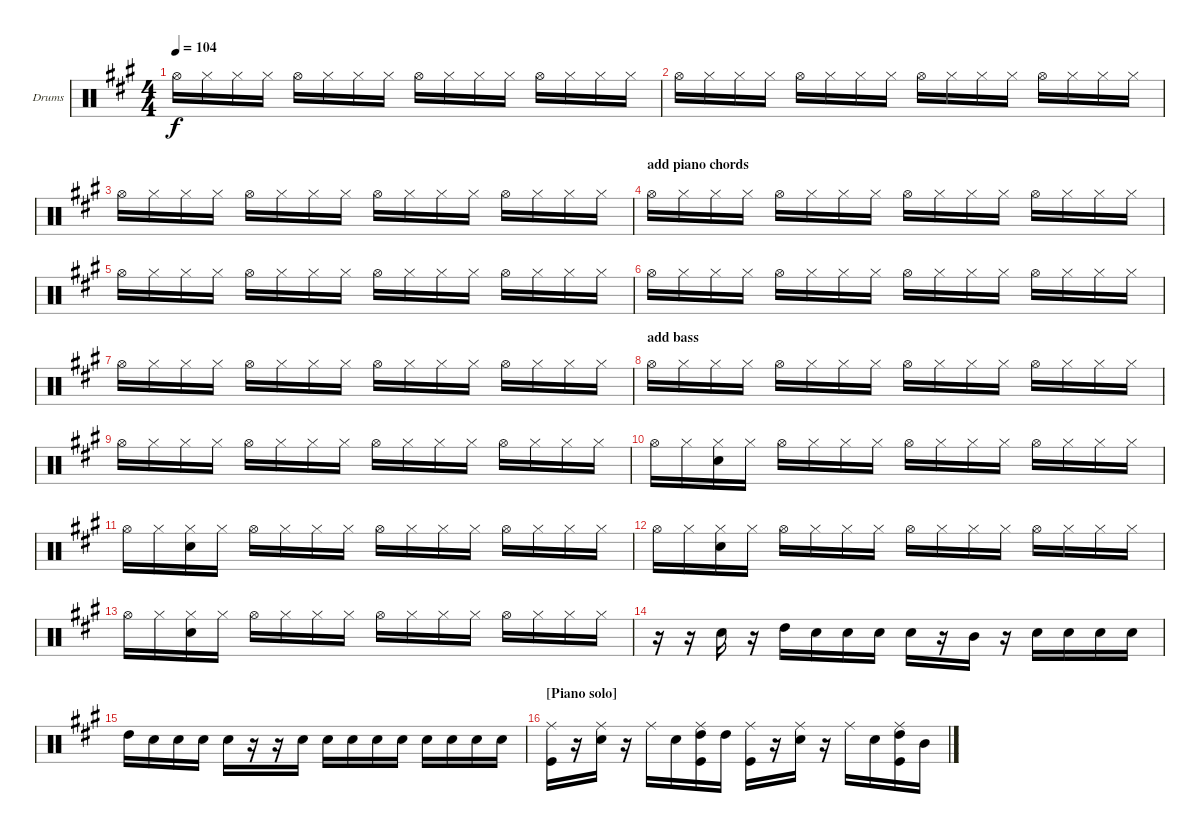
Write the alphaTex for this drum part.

\bracketExtendMode groupsimilarinstruments
\firstSystemTrackNameOrientation horizontal
\otherSystemsTrackNameOrientation horizontal
\track ("Drumkit" "Drums") {instrument percussion}
\staff {score}
\articulation defaults
\ts (4 4)
\tempo 104
\clef neutral
\ks a "Hi-Hat (open)".16{dy f} "Hi-Hat (closed)".16 "Hi-Hat (closed)".16 "Hi-Hat (closed)".16 "Hi-Hat (open)".16 "Hi-Hat (closed)".16 "Hi-Hat (closed)".16 "Hi-Hat (closed)".16 "Hi-Hat (open)".16 "Hi-Hat (closed)".16 "Hi-Hat (closed)".16 "Hi-Hat (closed)".16 "Hi-Hat (open)".16 "Hi-Hat (closed)".16 "Hi-Hat (closed)".16 "Hi-Hat (closed)".16
|
"Hi-Hat (open)".16 "Hi-Hat (closed)".16 "Hi-Hat (closed)".16 "Hi-Hat (closed)".16 "Hi-Hat (open)".16 "Hi-Hat (closed)".16 "Hi-Hat (closed)".16 "Hi-Hat (closed)".16 "Hi-Hat (open)".16 "Hi-Hat (closed)".16 "Hi-Hat (closed)".16 "Hi-Hat (closed)".16 "Hi-Hat (open)".16 "Hi-Hat (closed)".16 "Hi-Hat (closed)".16 "Hi-Hat (closed)".16 |
"Hi-Hat (open)".16 "Hi-Hat (closed)".16 "Hi-Hat (closed)".16 "Hi-Hat (closed)".16 "Hi-Hat (open)".16 "Hi-Hat (closed)".16 "Hi-Hat (closed)".16 "Hi-Hat (closed)".16 "Hi-Hat (open)".16 "Hi-Hat (closed)".16 "Hi-Hat (closed)".16 "Hi-Hat (closed)".16 "Hi-Hat (open)".16 "Hi-Hat (closed)".16 "Hi-Hat (closed)".16 "Hi-Hat (closed)".16 |
\section ("" "add piano chords")
"Hi-Hat (open)".16 "Hi-Hat (closed)".16 "Hi-Hat (closed)".16 "Hi-Hat (closed)".16 "Hi-Hat (open)".16 "Hi-Hat (closed)".16 "Hi-Hat (closed)".16 "Hi-Hat (closed)".16 "Hi-Hat (open)".16 "Hi-Hat (closed)".16 "Hi-Hat (closed)".16 "Hi-Hat (closed)".16 "Hi-Hat (open)".16 "Hi-Hat (closed)".16 "Hi-Hat (closed)".16 "Hi-Hat (closed)".16 |
"Hi-Hat (open)".16 "Hi-Hat (closed)".16 "Hi-Hat (closed)".16 "Hi-Hat (closed)".16 "Hi-Hat (open)".16 "Hi-Hat (closed)".16 "Hi-Hat (closed)".16 "Hi-Hat (closed)".16 "Hi-Hat (open)".16 "Hi-Hat (closed)".16 "Hi-Hat (closed)".16 "Hi-Hat (closed)".16 "Hi-Hat (open)".16 "Hi-Hat (closed)".16 "Hi-Hat (closed)".16 "Hi-Hat (closed)".16 |
"Hi-Hat (open)".16 "Hi-Hat (closed)".16 "Hi-Hat (closed)".16 "Hi-Hat (closed)".16 "Hi-Hat (open)".16 "Hi-Hat (closed)".16 "Hi-Hat (closed)".16 "Hi-Hat (closed)".16 "Hi-Hat (open)".16 "Hi-Hat (closed)".16 "Hi-Hat (closed)".16 "Hi-Hat (closed)".16 "Hi-Hat (open)".16 "Hi-Hat (closed)".16 "Hi-Hat (closed)".16 "Hi-Hat (closed)".16 |
"Hi-Hat (open)".16 "Hi-Hat (closed)".16 "Hi-Hat (closed)".16 "Hi-Hat (closed)".16 "Hi-Hat (open)".16 "Hi-Hat (closed)".16 "Hi-Hat (closed)".16 "Hi-Hat (closed)".16 "Hi-Hat (open)".16 "Hi-Hat (closed)".16 "Hi-Hat (closed)".16 "Hi-Hat (closed)".16 "Hi-Hat (open)".16 "Hi-Hat (closed)".16 "Hi-Hat (closed)".16 "Hi-Hat (closed)".16 |
\section ("" "add bass")
"Hi-Hat (open)".16 "Hi-Hat (closed)".16 "Hi-Hat (closed)".16 "Hi-Hat (closed)".16 "Hi-Hat (open)".16 "Hi-Hat (closed)".16 "Hi-Hat (closed)".16 "Hi-Hat (closed)".16 "Hi-Hat (open)".16 "Hi-Hat (closed)".16 "Hi-Hat (closed)".16 "Hi-Hat (closed)".16 "Hi-Hat (open)".16 "Hi-Hat (closed)".16 "Hi-Hat (closed)".16 "Hi-Hat (closed)".16 |
"Hi-Hat (open)".16 "Hi-Hat (closed)".16 "Hi-Hat (closed)".16 "Hi-Hat (closed)".16 "Hi-Hat (open)".16 "Hi-Hat (closed)".16 "Hi-Hat (closed)".16 "Hi-Hat (closed)".16 "Hi-Hat (open)".16 "Hi-Hat (closed)".16 "Hi-Hat (closed)".16 "Hi-Hat (closed)".16 "Hi-Hat (open)".16 "Hi-Hat (closed)".16 "Hi-Hat (closed)".16 "Hi-Hat (closed)".16 |
"Hi-Hat (open)".16 "Hi-Hat (closed)".16 ("Hi-Hat (closed)" "Snare (hit) 2").16 "Hi-Hat (closed)".16 "Hi-Hat (open)".16 "Hi-Hat (closed)".16 "Hi-Hat (closed)".16 "Hi-Hat (closed)".16 "Hi-Hat (open)".16 "Hi-Hat (closed)".16 "Hi-Hat (closed)".16 "Hi-Hat (closed)".16 "Hi-Hat (open)".16 "Hi-Hat (closed)".16 "Hi-Hat (closed)".16 "Hi-Hat (closed)".16 |
"Hi-Hat (open)".16 "Hi-Hat (closed)".16 ("Hi-Hat (closed)" "Snare (hit) 2").16 "Hi-Hat (closed)".16 "Hi-Hat (open)".16 "Hi-Hat (closed)".16 "Hi-Hat (closed)".16 "Hi-Hat (closed)".16 "Hi-Hat (open)".16 "Hi-Hat (closed)".16 "Hi-Hat (closed)".16 "Hi-Hat (closed)".16 "Hi-Hat (open)".16 "Hi-Hat (closed)".16 "Hi-Hat (closed)".16 "Hi-Hat (closed)".16 |
"Hi-Hat (open)".16 "Hi-Hat (closed)".16 ("Hi-Hat (closed)" "Snare (hit) 2").16 "Hi-Hat (closed)".16 "Hi-Hat (open)".16 "Hi-Hat (closed)".16 "Hi-Hat (closed)".16 "Hi-Hat (closed)".16 "Hi-Hat (open)".16 "Hi-Hat (closed)".16 "Hi-Hat (closed)".16 "Hi-Hat (closed)".16 "Hi-Hat (open)".16 "Hi-Hat (closed)".16 "Hi-Hat (closed)".16 "Hi-Hat (closed)".16 |
"Hi-Hat (open)".16 "Hi-Hat (closed)".16 ("Hi-Hat (closed)" "Snare (hit) 2").16 "Hi-Hat (closed)".16 "Hi-Hat (open)".16 "Hi-Hat (closed)".16 "Hi-Hat (closed)".16 "Hi-Hat (closed)".16 "Hi-Hat (open)".16 "Hi-Hat (closed)".16 "Hi-Hat (closed)".16 "Hi-Hat (closed)".16 "Hi-Hat (open)".16 "Hi-Hat (closed)".16 "Hi-Hat (closed)".16 "Hi-Hat (closed)".16 |
r.16 r.16 "Snare (hit) 2".16 r.16 "High Tom (hit)".16 "Snare (hit) 2".16 "Snare (hit) 2".16 "Snare (hit) 2".16 "Snare (hit) 2".16 r.16 "Mid Tom (hit)".16 r.16 "Snare (hit) 2".16 "Snare (hit) 2".16 "Snare (hit) 2".16 "Snare (hit) 2".16 |
"High Tom (hit)".16 "Snare (hit) 2".16 "Snare (hit) 2".16 "Snare (hit) 2".16 "Snare (hit) 2".16 r.16 r.16 "Snare (hit) 2".16 "Snare (hit) 2".16 "Snare (hit) 2".16 "Snare (hit) 2".16 "Snare (hit) 2".16 "Snare (hit) 2".16 "Snare (hit) 2".16 "Snare (hit) 2".16 "Snare (hit) 2".16 |
\section ("" "[Piano solo]")
("Ride (middle)" "Kick (hit)").16 r.16 ("Ride (middle)" "Snare (hit) 2").16 r.16 "Ride (middle)".16 "Snare (hit) 2".16 ("Ride (middle)" "High Tom (hit)" "Kick (hit)").16 "High Tom (hit)".16 ("Ride (middle)" "Kick (hit)").16 r.16 ("Ride (middle)" "Snare (hit) 2").16 r.16 "Ride (middle)".16 "Snare (hit) 2".16 ("Ride (middle)" "High Tom (hit)" "Kick (hit)").16 "Mid Tom (hit)".16
